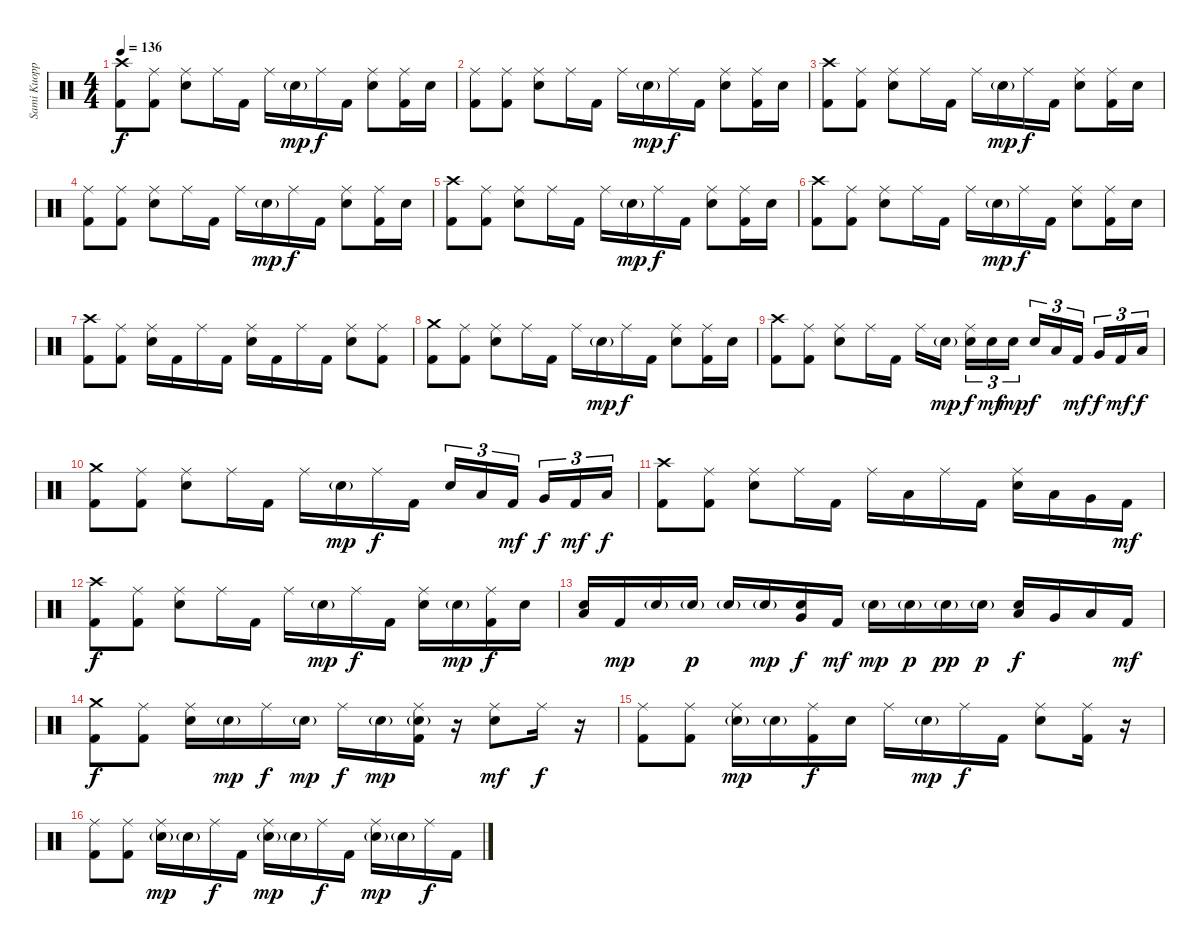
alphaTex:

\track ("Sami Kuoppamäki - Drums" "Sami Kuopp") {instrument percussion}
\staff {score}
\articulation defaults
\ts (4 4)
\tempo 136
\clef neutral
\ks c
("Crash high (hit)" "Kick (hit) 2").8{dy f} ("Ride (middle)" "Kick (hit) 2").8 ("Ride (middle)" "Snare (hit) 2").8 "Ride (middle)".16 "Kick (hit) 2".16 "Ride (middle)".16 "Snare (hit) 2"{g}.16{dy mp} "Ride (middle)".16{dy f} "Kick (hit) 2".16 ("Ride (middle)" "Snare (hit) 2").8 ("Ride (middle)" "Kick (hit) 2").16 "Snare (hit) 2".16 |
("Ride (middle)" "Kick (hit) 2").8 ("Ride (middle)" "Kick (hit) 2").8 ("Ride (middle)" "Snare (hit) 2").8 "Ride (middle)".16 "Kick (hit) 2".16 "Ride (middle)".16 "Snare (hit) 2"{g}.16{dy mp} "Ride (middle)".16{dy f} "Kick (hit) 2".16 ("Ride (middle)" "Snare (hit) 2").8 ("Ride (middle)" "Kick (hit) 2").16 "Snare (hit) 2".16 |
("Crash high (hit)" "Kick (hit) 2").8 ("Ride (middle)" "Kick (hit) 2").8 ("Ride (middle)" "Snare (hit) 2").8 "Ride (middle)".16 "Kick (hit) 2".16 "Ride (middle)".16 "Snare (hit) 2"{g}.16{dy mp} "Ride (middle)".16{dy f} "Kick (hit) 2".16 ("Ride (middle)" "Snare (hit) 2").8 ("Ride (middle)" "Kick (hit) 2").16 "Snare (hit) 2".16 |
("Ride (middle)" "Kick (hit) 2").8 ("Ride (middle)" "Kick (hit) 2").8 ("Ride (middle)" "Snare (hit) 2").8 "Ride (middle)".16 "Kick (hit) 2".16 "Ride (middle)".16 "Snare (hit) 2"{g}.16{dy mp} "Ride (middle)".16{dy f} "Kick (hit) 2".16 ("Ride (middle)" "Snare (hit) 2").8 ("Ride (middle)" "Kick (hit) 2").16 "Snare (hit) 2".16 |
("Crash high (hit)" "Kick (hit) 2").8 ("Ride (middle)" "Kick (hit) 2").8 ("Ride (middle)" "Snare (hit) 2").8 "Ride (middle)".16 "Kick (hit) 2".16 "Ride (middle)".16 "Snare (hit) 2"{g}.16{dy mp} "Ride (middle)".16{dy f} "Kick (hit) 2".16 ("Ride (middle)" "Snare (hit) 2").8 ("Ride (middle)" "Kick (hit) 2").16 "Snare (hit) 2".16 |
("Crash high (hit)" "Kick (hit) 2").8 ("Ride (middle)" "Kick (hit) 2").8 ("Ride (middle)" "Snare (hit) 2").8 "Ride (middle)".16 "Kick (hit) 2".16 "Ride (middle)".16 "Snare (hit) 2"{g}.16{dy mp} "Ride (middle)".16{dy f} "Kick (hit) 2".16 ("Ride (middle)" "Snare (hit) 2").8 ("Ride (middle)" "Kick (hit) 2").16 "Snare (hit) 2".16 |
("Crash high (hit)" "Kick (hit) 2").8 ("Ride (middle)" "Kick (hit) 2").8 ("Ride (middle)" "Snare (hit) 2").16 "Kick (hit) 2".16 "Ride (middle)".16 "Kick (hit) 2".16 ("Ride (middle)" "Snare (hit) 2").16 "Kick (hit) 2".16 "Ride (middle)".16 "Kick (hit) 2".16 ("Ride (middle)" "Snare (hit) 2").8 ("Ride (middle)" "Kick (hit) 2").8 |
("Crash medium (hit)" "Kick (hit) 2").8 ("Ride (middle)" "Kick (hit) 2").8 ("Ride (middle)" "Snare (hit) 2").8 "Ride (middle)".16 "Kick (hit) 2".16 "Ride (middle)".16 "Snare (hit) 2"{g}.16{dy mp} "Ride (middle)".16{dy f} "Kick (hit) 2".16 ("Ride (middle)" "Snare (hit) 2").8 ("Ride (middle)" "Kick (hit) 2").16 "Snare (hit) 2".16 |
("Crash high (hit)" "Kick (hit) 2").8 ("Ride (middle)" "Kick (hit) 2").8 ("Ride (middle)" "Snare (hit) 2").8 "Ride (middle)".16 "Kick (hit) 2".16 "Ride (middle)".16 "Snare (hit) 2"{g}.16{dy mp} ("Ride (middle)" "Snare (hit) 2").16{tu (3 2) dy f} "Snare (hit) 2".16{tu (3 2) dy mf} "Snare (hit) 2".16{tu (3 2) dy mp} "Snare (hit) 2".16{tu (3 2) dy f} "Low Tom (hit)".16{tu (3 2)} "Kick (hit) 2".16{tu (3 2) dy mf} "Very Low Tom (hit)".16{tu (3 2) dy f} "Kick (hit) 2".16{tu (3 2) dy mf} "Low Floor Tom (hit)".16{tu (3 2) dy f} |
("Crash medium (hit)" "Kick (hit) 2").8 ("Ride (middle)" "Kick (hit) 2").8 ("Ride (middle)" "Snare (hit) 2").8 "Ride (middle)".16 "Kick (hit) 2".16 "Ride (middle)".16 "Snare (hit) 2"{g}.16{dy mp} "Ride (middle)".16{dy f} "Kick (hit) 2".16 "Snare (hit) 2".16{tu (3 2)} "Low Tom (hit)".16{tu (3 2)} "Kick (hit) 2".16{tu (3 2) dy mf} "Very Low Tom (hit)".16{tu (3 2) dy f} "Kick (hit) 2".16{tu (3 2) dy mf} "Low Floor Tom (hit)".16{tu (3 2) dy f} |
("Crash high (hit)" "Kick (hit) 2").8 ("Ride (middle)" "Kick (hit) 2").8 ("Ride (middle)" "Snare (hit) 2").8 "Ride (middle)".16 "Kick (hit) 2".16 "Ride (middle)".16 "Low Tom (hit)".16 "Ride (middle)".16 "Kick (hit) 2".16 ("Ride (middle)" "Snare (hit) 2").16 "Low Tom (hit)".16 "Very Low Tom (hit)".16 "Kick (hit) 2".16{dy mf} |
("Crash high (hit)" "Kick (hit) 2").8{dy f} ("Ride (middle)" "Kick (hit) 2").8 ("Ride (middle)" "Snare (hit) 2").8 "Ride (middle)".16 "Kick (hit) 2".16 "Ride (middle)".16 "Snare (hit) 2"{g}.16{dy mp} "Ride (middle)".16{dy f} "Kick (hit) 2".16 ("Ride (middle)" "Snare (hit) 2").16 "Snare (hit) 2"{g}.16{dy mp} ("Ride (middle)" "Kick (hit) 2").16{dy f} "Snare (hit) 2".16 |
("Low Tom (hit)" "Snare (hit) 2").16 "Kick (hit) 2".16{dy mp} "Snare (hit) 2"{g}.16 "Snare (hit) 2"{g}.16{dy p} "Snare (hit) 2"{g}.16 "Snare (hit) 2"{g}.16{dy mp} ("Very Low Tom (hit)" "Snare (hit) 2").16{dy f} "Kick (hit) 2".16{dy mf} "Snare (hit) 2"{g}.16{dy mp} "Snare (hit) 2"{g}.16{dy p} "Snare (hit) 2"{g}.16{dy pp} "Snare (hit) 2"{g}.16{dy p} ("Low Tom (hit)" "Snare (hit) 2").16{dy f} "Very Low Tom (hit)".16 "Low Floor Tom (hit)".16 "Kick (hit) 2".16{dy mf} |
("Crash medium (hit)" "Kick (hit) 2").8{dy f volume 11} ("Ride (middle)" "Kick (hit) 2").8 ("Ride (middle)" "Snare (hit) 2").16 "Snare (hit) 2"{g}.16{dy mp} "Ride (middle)".16{dy f} "Snare (hit) 2"{g}.16{dy mp} "Ride (middle)".16{dy f} "Snare (hit) 2"{g}.16{dy mp} ("Ride (middle)" "Snare (hit) 2"{g} "Kick (hit) 2").16 r.16 ("Ride (middle)" "Snare (hit) 2").8{dy mf} "Ride (middle)".16{dy f} r.16 |
("Ride (middle)" "Kick (hit) 2").8 ("Ride (middle)" "Kick (hit) 2").8 ("Ride (middle)" "Snare (hit) 2"{g}).16{dy mp} "Snare (hit) 2"{g}.16 ("Ride (middle)" "Kick (hit) 2").16{dy f} "Snare (hit) 2".16 "Ride (middle)".16 "Snare (hit) 2"{g}.16{dy mp} "Ride (middle)".16{dy f} "Kick (hit) 2".16 ("Ride (middle)" "Snare (hit) 2").8 ("Ride (middle)" "Kick (hit) 2").16 r.16 |
("Ride (middle)" "Kick (hit) 2").8 ("Ride (middle)" "Kick (hit) 2").8 ("Ride (middle)" "Snare (hit) 2"{g}).16{dy mp} "Snare (hit) 2"{g}.16 "Ride (middle)".16{dy f} "Kick (hit) 2".16 ("Ride (middle)" "Snare (hit) 2"{g}).16{dy mp} "Snare (hit) 2"{g}.16 "Ride (middle)".16{dy f} "Kick (hit) 2".16 ("Ride (middle)" "Snare (hit) 2"{g}).16{dy mp} "Snare (hit) 2"{g}.16 "Ride (middle)".16{dy f} "Kick (hit) 2".16
